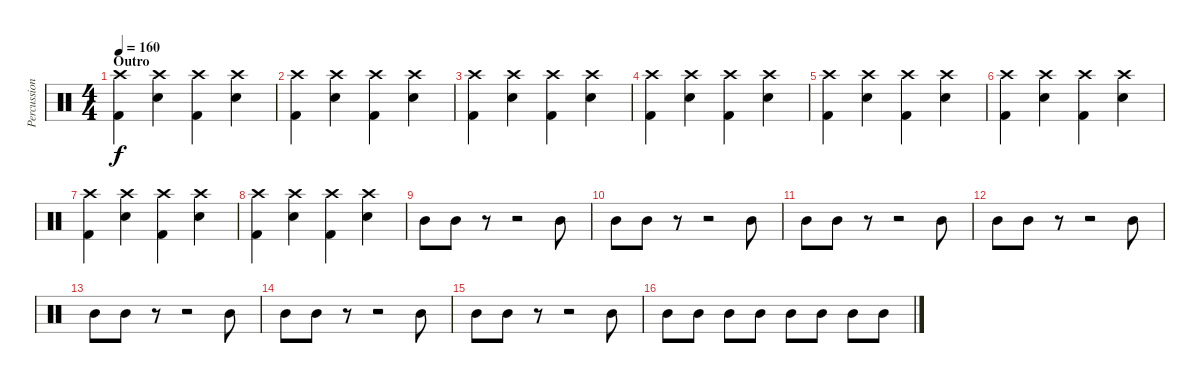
\track ("Percussion" "Percussion") {instrument percussion}
\staff {score}
\articulation defaults
\ts (4 4)
\section ("" "Outro")
\tempo 160
\clef neutral
\ks c
("Crash high (hit)" "Kick (hit) 2").4{dy f} ("Crash high (hit)" "Snare (hit) 2").4 ("Crash high (hit)" "Kick (hit) 2").4 ("Crash high (hit)" "Snare (hit) 2").4 |
("Crash high (hit)" "Kick (hit) 2").4 ("Crash high (hit)" "Snare (hit) 2").4 ("Crash high (hit)" "Kick (hit) 2").4 ("Crash high (hit)" "Snare (hit) 2").4 |
("Crash high (hit)" "Kick (hit) 2").4 ("Crash high (hit)" "Snare (hit) 2").4 ("Crash high (hit)" "Kick (hit) 2").4 ("Crash high (hit)" "Snare (hit) 2").4 |
("Crash high (hit)" "Kick (hit) 2").4 ("Crash high (hit)" "Snare (hit) 2").4 ("Crash high (hit)" "Kick (hit) 2").4 ("Crash high (hit)" "Snare (hit) 2").4 |
("Crash high (hit)" "Kick (hit) 2").4 ("Crash high (hit)" "Snare (hit) 2").4 ("Crash high (hit)" "Kick (hit) 2").4 ("Crash high (hit)" "Snare (hit) 2").4 |
("Crash high (hit)" "Kick (hit) 2").4 ("Crash high (hit)" "Snare (hit) 2").4 ("Crash high (hit)" "Kick (hit) 2").4 ("Crash high (hit)" "Snare (hit) 2").4 |
("Crash high (hit)" "Kick (hit) 2").4 ("Crash high (hit)" "Snare (hit) 2").4 ("Crash high (hit)" "Kick (hit) 2").4 ("Crash high (hit)" "Snare (hit) 2").4 |
("Crash high (hit)" "Kick (hit) 2").4 ("Crash high (hit)" "Snare (hit) 2").4 ("Crash high (hit)" "Kick (hit) 2").4 ("Crash high (hit)" "Snare (hit) 2").4 |
"Mid Tom (hit)".8 "Mid Tom (hit)".8 r.8 r.2 "Mid Tom (hit)".8 |
"Mid Tom (hit)".8 "Mid Tom (hit)".8 r.8 r.2 "Mid Tom (hit)".8 |
"Mid Tom (hit)".8 "Mid Tom (hit)".8 r.8 r.2 "Mid Tom (hit)".8 |
"Mid Tom (hit)".8 "Mid Tom (hit)".8 r.8 r.2 "Mid Tom (hit)".8 |
"Mid Tom (hit)".8 "Mid Tom (hit)".8 r.8 r.2 "Mid Tom (hit)".8 |
"Mid Tom (hit)".8 "Mid Tom (hit)".8 r.8 r.2 "Mid Tom (hit)".8 |
"Mid Tom (hit)".8 "Mid Tom (hit)".8 r.8 r.2 "Mid Tom (hit)".8 |
"Mid Tom (hit)".8 "Mid Tom (hit)".8 "Mid Tom (hit)".8 "Mid Tom (hit)".8 "Mid Tom (hit)".8 "Mid Tom (hit)".8 "Mid Tom (hit)".8 "Mid Tom (hit)".8
